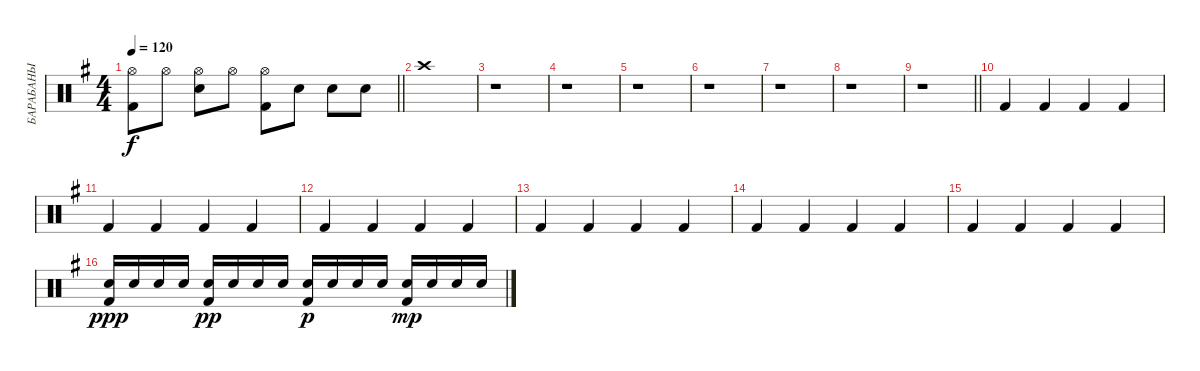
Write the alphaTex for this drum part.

\track ("БАРАБАНЫ" "БАРАБАНЫ") {instrument percussion}
\staff {score}
\articulation defaults
\ts (4 4)
\tempo 120
\clef neutral
\barLineRight lightlight
\ks g
("Hi-Hat (open)" "Kick (hit) 2").8{dy f} "Hi-Hat (open)".8 ("Hi-Hat (open)" "Electric Snare (hit)").8 "Hi-Hat (open)".8 ("Hi-Hat (open)" "Kick (hit) 2").8 "Electric Snare (hit)".8 "Electric Snare (hit)".8 "Electric Snare (hit)".8 |
"Crash high (hit)".1 |
r.1 |
r.1 |
r.1 |
r.1 |
r.1 |
r.1 |
\barLineRight lightlight
r.1 |
"Kick (hit) 2".4 "Kick (hit) 2".4 "Kick (hit) 2".4 "Kick (hit) 2".4 |
"Kick (hit) 2".4 "Kick (hit) 2".4 "Kick (hit) 2".4 "Kick (hit) 2".4 |
"Kick (hit) 2".4 "Kick (hit) 2".4 "Kick (hit) 2".4 "Kick (hit) 2".4 |
"Kick (hit) 2".4 "Kick (hit) 2".4 "Kick (hit) 2".4 "Kick (hit) 2".4 |
"Kick (hit) 2".4 "Kick (hit) 2".4 "Kick (hit) 2".4 "Kick (hit) 2".4 |
"Kick (hit) 2".4 "Kick (hit) 2".4 "Kick (hit) 2".4 "Kick (hit) 2".4 |
("Electric Snare (hit)" "Kick (hit) 2").16{dy ppp} "Electric Snare (hit)".16 "Electric Snare (hit)".16 "Electric Snare (hit)".16 ("Electric Snare (hit)" "Kick (hit) 2").16{dy pp} "Electric Snare (hit)".16 "Electric Snare (hit)".16 "Electric Snare (hit)".16 ("Electric Snare (hit)" "Kick (hit) 2").16{dy p} "Electric Snare (hit)".16 "Electric Snare (hit)".16 "Electric Snare (hit)".16 ("Electric Snare (hit)" "Kick (hit) 2").16{dy mp} "Electric Snare (hit)".16 "Electric Snare (hit)".16 "Electric Snare (hit)".16
